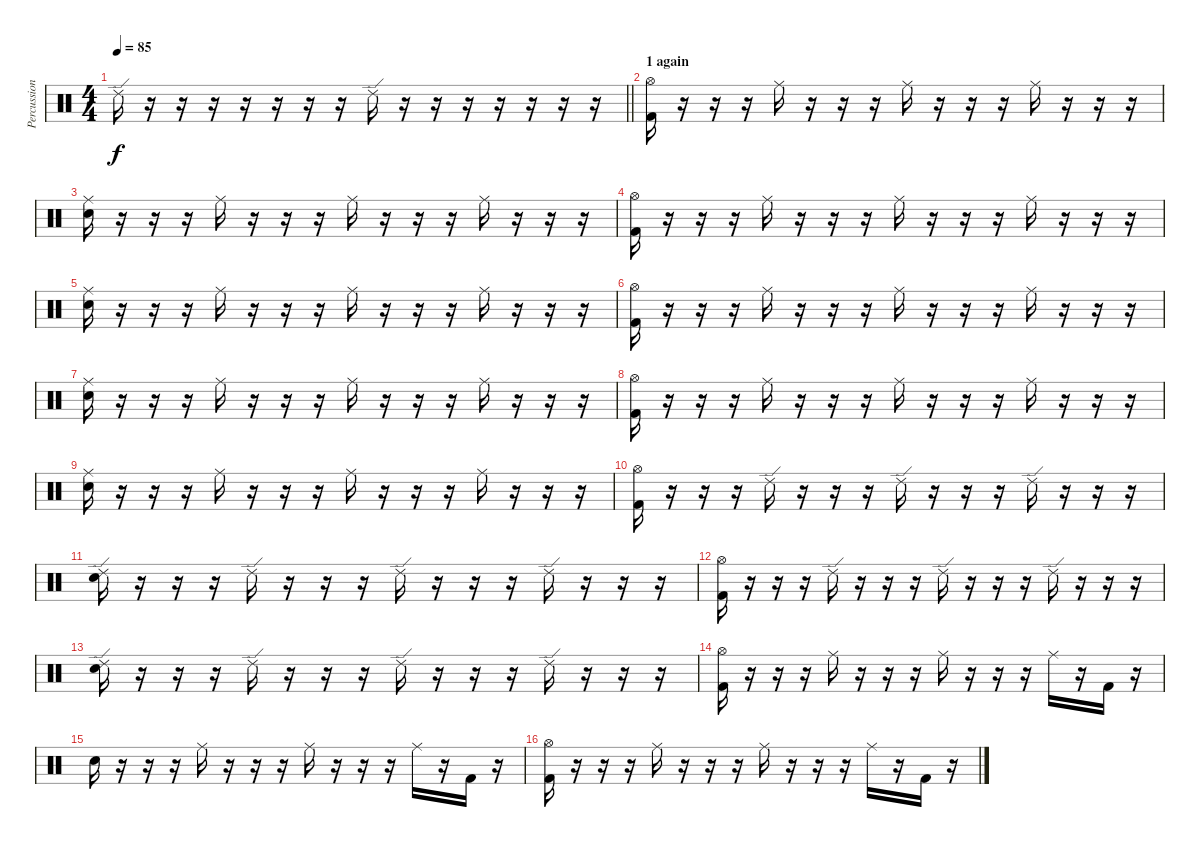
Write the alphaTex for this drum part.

\track ("Percussion" "Percussion") {instrument percussion}
\staff {score}
\articulation defaults
\ts (4 4)
\tempo 85
\clef neutral
\barLineRight lightlight
\ks c "Ride (edge) 2".16{dy f}
r.16 r.16 r.16 r.16 r.16 r.16 r.16 "Ride (edge) 2".16 r.16 r.16 r.16 r.16 r.16 r.16 r.16 |
\section ("" "1 again")
("Hi-Hat (open)" "Kick (hit) 2").16 r.16 r.16 r.16 "Ride (middle)".16 r.16 r.16 r.16 "Ride (middle)".16 r.16 r.16 r.16 "Ride (middle)".16 r.16 r.16 r.16 |
("Ride (middle)" "Electric Snare (hit)").16 r.16 r.16 r.16 "Ride (middle)".16 r.16 r.16 r.16 "Ride (middle)".16 r.16 r.16 r.16 "Ride (middle)".16 r.16 r.16 r.16 |
("Hi-Hat (open)" "Kick (hit) 2").16 r.16 r.16 r.16 "Ride (middle)".16 r.16 r.16 r.16 "Ride (middle)".16 r.16 r.16 r.16 "Ride (middle)".16 r.16 r.16 r.16 |
("Ride (middle)" "Electric Snare (hit)").16 r.16 r.16 r.16 "Ride (middle)".16 r.16 r.16 r.16 "Ride (middle)".16 r.16 r.16 r.16 "Ride (middle)".16 r.16 r.16 r.16 |
("Hi-Hat (open)" "Kick (hit) 2").16 r.16 r.16 r.16 "Ride (middle)".16 r.16 r.16 r.16 "Ride (middle)".16 r.16 r.16 r.16 "Ride (middle)".16 r.16 r.16 r.16 |
("Ride (middle)" "Electric Snare (hit)").16 r.16 r.16 r.16 "Ride (middle)".16 r.16 r.16 r.16 "Ride (middle)".16 r.16 r.16 r.16 "Ride (middle)".16 r.16 r.16 r.16 |
("Hi-Hat (open)" "Kick (hit) 2").16 r.16 r.16 r.16 "Ride (middle)".16 r.16 r.16 r.16 "Ride (middle)".16 r.16 r.16 r.16 "Ride (middle)".16 r.16 r.16 r.16 |
("Ride (middle)" "Electric Snare (hit)").16 r.16 r.16 r.16 "Ride (middle)".16 r.16 r.16 r.16 "Ride (middle)".16 r.16 r.16 r.16 "Ride (middle)".16 r.16 r.16 r.16 |
("Hi-Hat (open)" "Kick (hit) 2").16 r.16 r.16 r.16 "Ride (edge) 2".16 r.16 r.16 r.16 "Ride (edge) 2".16 r.16 r.16 r.16 "Ride (edge) 2".16 r.16 r.16 r.16 |
("Ride (edge) 2" "Electric Snare (hit)").16 r.16 r.16 r.16 "Ride (edge) 2".16 r.16 r.16 r.16 "Ride (edge) 2".16 r.16 r.16 r.16 "Ride (edge) 2".16 r.16 r.16 r.16 |
("Hi-Hat (open)" "Kick (hit) 2").16 r.16 r.16 r.16 "Ride (edge) 2".16 r.16 r.16 r.16 "Ride (edge) 2".16 r.16 r.16 r.16 "Ride (edge) 2".16 r.16 r.16 r.16 |
("Ride (edge) 2" "Electric Snare (hit)").16 r.16 r.16 r.16 "Ride (edge) 2".16 r.16 r.16 r.16 "Ride (edge) 2".16 r.16 r.16 r.16 "Ride (edge) 2".16 r.16 r.16 r.16 |
("Hi-Hat (open)" "Kick (hit) 2").16 r.16 r.16 r.16 "Ride (middle)".16 r.16 r.16 r.16 "Ride (middle)".16 r.16 r.16 r.16 "Ride (middle)".16 r.16 "Kick (hit) 2".16 r.16 |
"Electric Snare (hit)".16 r.16 r.16 r.16 "Ride (middle)".16 r.16 r.16 r.16 "Ride (middle)".16 r.16 r.16 r.16 "Ride (middle)".16 r.16 "Kick (hit) 2".16 r.16 |
("Hi-Hat (open)" "Kick (hit) 2").16 r.16 r.16 r.16 "Ride (middle)".16 r.16 r.16 r.16 "Ride (middle)".16 r.16 r.16 r.16 "Ride (middle)".16 r.16 "Kick (hit) 2".16 r.16
